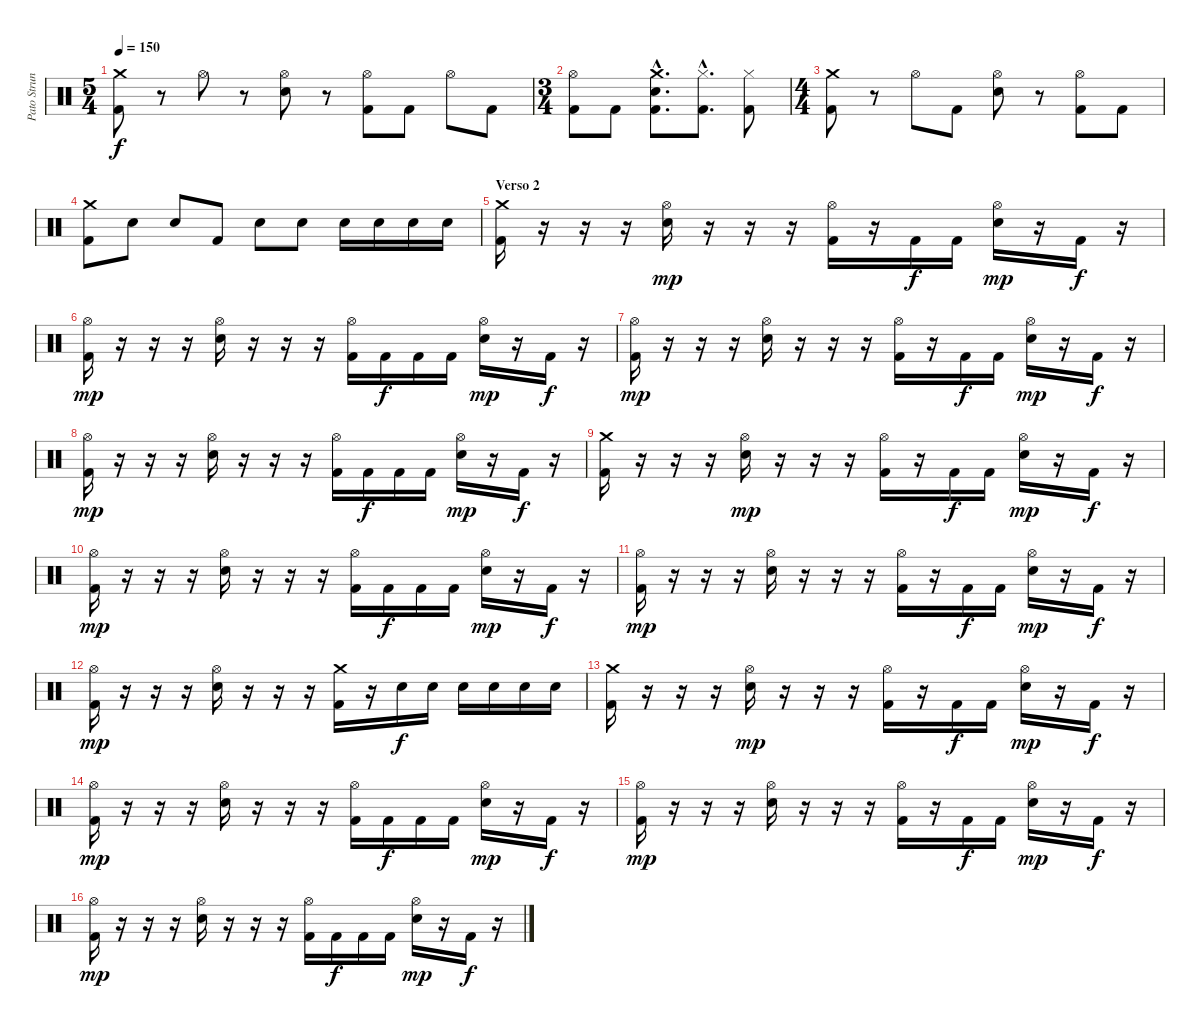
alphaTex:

\track ("Pato Strunz" "Pato Strun") {instrument percussion}
\staff {score}
\articulation defaults
\ts (5 4)
\tempo 150
\clef neutral
\ks c
("Crash medium (hit)" "Kick (hit) 2").8{dy f} r.8 "Hi-Hat (open)".8 r.8 ("Hi-Hat (open)" "Electric Snare (hit)").8 r.8 ("Hi-Hat (open)" "Kick (hit) 2").8 "Kick (hit) 2".8 "Hi-Hat (open)".8 "Kick (hit) 2".8 |
\ts (3 4)
("Hi-Hat (open)" "Kick (hit) 2").8 "Kick (hit) 2".8 ("Crash medium (hit)"{hac} "Electric Snare (hit)"{hac} "Kick (hit) 2"{hac}).8{d} ("Hi-Hat (closed)"{hac} "Kick (hit) 2"{hac}).8{d} ("Hi-Hat (closed)" "Kick (hit) 2").8 |
\ts (4 4)
("Crash medium (hit)" "Kick (hit) 2").8 r.8 "Hi-Hat (open)".8 "Kick (hit) 2".8 ("Hi-Hat (open)" "Electric Snare (hit)").8 r.8 ("Hi-Hat (open)" "Kick (hit) 2").8 "Kick (hit) 2".8 |
("Crash medium (hit)" "Kick (hit) 2").8 "Electric Snare (hit)".8 "Electric Snare (hit)".8 "Kick (hit) 2".8 "Electric Snare (hit)".8 "Electric Snare (hit)".8 "Electric Snare (hit)".16 "Electric Snare (hit)".16 "Electric Snare (hit)".16 "Electric Snare (hit)".16 |
\section ("" "Verso 2")
("Crash medium (hit)" "Kick (hit) 2").16 r.16 r.16 r.16 ("Hi-Hat (open)" "Electric Snare (hit)").16{dy mp} r.16 r.16 r.16 ("Hi-Hat (open)" "Kick (hit) 2").16 r.16 "Kick (hit) 2".16{dy f} "Kick (hit) 2".16 ("Hi-Hat (open)" "Electric Snare (hit)").16{dy mp} r.16 "Kick (hit) 2".16{dy f} r.16 |
("Hi-Hat (open)" "Kick (hit) 2").16{dy mp} r.16 r.16 r.16 ("Hi-Hat (open)" "Electric Snare (hit)").16 r.16 r.16 r.16 ("Hi-Hat (open)" "Kick (hit) 2").16 "Kick (hit) 2".16{dy f} "Kick (hit) 2".16 "Kick (hit) 2".16 ("Hi-Hat (open)" "Electric Snare (hit)").16{dy mp} r.16 "Kick (hit) 2".16{dy f} r.16 |
("Hi-Hat (open)" "Kick (hit) 2").16{dy mp} r.16 r.16 r.16 ("Hi-Hat (open)" "Electric Snare (hit)").16 r.16 r.16 r.16 ("Hi-Hat (open)" "Kick (hit) 2").16 r.16 "Kick (hit) 2".16{dy f} "Kick (hit) 2".16 ("Hi-Hat (open)" "Electric Snare (hit)").16{dy mp} r.16 "Kick (hit) 2".16{dy f} r.16 |
("Hi-Hat (open)" "Kick (hit) 2").16{dy mp} r.16 r.16 r.16 ("Hi-Hat (open)" "Electric Snare (hit)").16 r.16 r.16 r.16 ("Hi-Hat (open)" "Kick (hit) 2").16 "Kick (hit) 2".16{dy f} "Kick (hit) 2".16 "Kick (hit) 2".16 ("Hi-Hat (open)" "Electric Snare (hit)").16{dy mp} r.16 "Kick (hit) 2".16{dy f} r.16 |
("Crash medium (hit)" "Kick (hit) 2").16 r.16 r.16 r.16 ("Hi-Hat (open)" "Electric Snare (hit)").16{dy mp} r.16 r.16 r.16 ("Hi-Hat (open)" "Kick (hit) 2").16 r.16 "Kick (hit) 2".16{dy f} "Kick (hit) 2".16 ("Hi-Hat (open)" "Electric Snare (hit)").16{dy mp} r.16 "Kick (hit) 2".16{dy f} r.16 |
("Hi-Hat (open)" "Kick (hit) 2").16{dy mp} r.16 r.16 r.16 ("Hi-Hat (open)" "Electric Snare (hit)").16 r.16 r.16 r.16 ("Hi-Hat (open)" "Kick (hit) 2").16 "Kick (hit) 2".16{dy f} "Kick (hit) 2".16 "Kick (hit) 2".16 ("Hi-Hat (open)" "Electric Snare (hit)").16{dy mp} r.16 "Kick (hit) 2".16{dy f} r.16 |
("Hi-Hat (open)" "Kick (hit) 2").16{dy mp} r.16 r.16 r.16 ("Hi-Hat (open)" "Electric Snare (hit)").16 r.16 r.16 r.16 ("Hi-Hat (open)" "Kick (hit) 2").16 r.16 "Kick (hit) 2".16{dy f} "Kick (hit) 2".16 ("Hi-Hat (open)" "Electric Snare (hit)").16{dy mp} r.16 "Kick (hit) 2".16{dy f} r.16 |
("Hi-Hat (open)" "Kick (hit) 2").16{dy mp} r.16 r.16 r.16 ("Hi-Hat (open)" "Electric Snare (hit)").16 r.16 r.16 r.16 ("Crash medium (hit)" "Kick (hit) 2").16 r.16 "Electric Snare (hit)".16{dy f} "Electric Snare (hit)".16 "Electric Snare (hit)".16 "Electric Snare (hit)".16 "Electric Snare (hit)".16 "Electric Snare (hit)".16 |
("Crash medium (hit)" "Kick (hit) 2").16 r.16 r.16 r.16 ("Hi-Hat (open)" "Electric Snare (hit)").16{dy mp} r.16 r.16 r.16 ("Hi-Hat (open)" "Kick (hit) 2").16 r.16 "Kick (hit) 2".16{dy f} "Kick (hit) 2".16 ("Hi-Hat (open)" "Electric Snare (hit)").16{dy mp} r.16 "Kick (hit) 2".16{dy f} r.16 |
("Hi-Hat (open)" "Kick (hit) 2").16{dy mp} r.16 r.16 r.16 ("Hi-Hat (open)" "Electric Snare (hit)").16 r.16 r.16 r.16 ("Hi-Hat (open)" "Kick (hit) 2").16 "Kick (hit) 2".16{dy f} "Kick (hit) 2".16 "Kick (hit) 2".16 ("Hi-Hat (open)" "Electric Snare (hit)").16{dy mp} r.16 "Kick (hit) 2".16{dy f} r.16 |
("Hi-Hat (open)" "Kick (hit) 2").16{dy mp} r.16 r.16 r.16 ("Hi-Hat (open)" "Electric Snare (hit)").16 r.16 r.16 r.16 ("Hi-Hat (open)" "Kick (hit) 2").16 r.16 "Kick (hit) 2".16{dy f} "Kick (hit) 2".16 ("Hi-Hat (open)" "Electric Snare (hit)").16{dy mp} r.16 "Kick (hit) 2".16{dy f} r.16 |
("Hi-Hat (open)" "Kick (hit) 2").16{dy mp} r.16 r.16 r.16 ("Hi-Hat (open)" "Electric Snare (hit)").16 r.16 r.16 r.16 ("Hi-Hat (open)" "Kick (hit) 2").16 "Kick (hit) 2".16{dy f} "Kick (hit) 2".16 "Kick (hit) 2".16 ("Hi-Hat (open)" "Electric Snare (hit)").16{dy mp} r.16 "Kick (hit) 2".16{dy f} r.16
